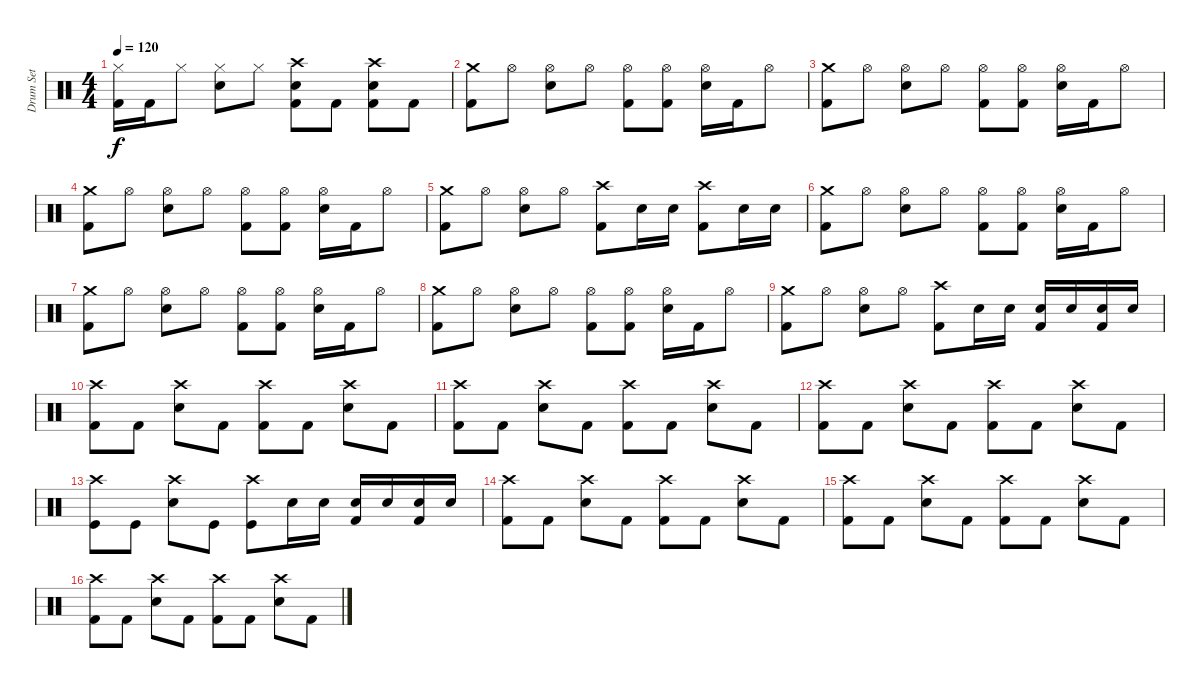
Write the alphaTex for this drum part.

\track ("Drum Set" "Drum Set") {instrument percussion}
\staff {score}
\articulation defaults
\ts (4 4)
\tempo 120
\clef neutral
\ks c
("Kick (hit) 2" "Hi-Hat (closed)").16{dy f} "Kick (hit) 2".16 "Hi-Hat (closed)".8 ("Hi-Hat (closed)" "Snare (hit) 2").8 "Hi-Hat (closed)".8 ("Crash high (hit)" "Kick (hit) 2" "Snare (hit) 2").8 "Kick (hit) 2".8 ("Crash high (hit)" "Snare (hit) 2" "Kick (hit) 2").8 "Kick (hit) 2".8 |
("Crash medium (hit)" "Kick (hit) 2").8 "Hi-Hat (open)".8 ("Snare (hit) 2" "Hi-Hat (open)").8 "Hi-Hat (open)".8 ("Kick (hit) 2" "Hi-Hat (open)").8 ("Kick (hit) 2" "Hi-Hat (open)").8 ("Snare (hit) 2" "Hi-Hat (open)").16 "Kick (hit) 2".16 "Hi-Hat (open)".8 |
("Crash medium (hit)" "Kick (hit) 2").8 "Hi-Hat (open)".8 ("Snare (hit) 2" "Hi-Hat (open)").8 "Hi-Hat (open)".8 ("Kick (hit) 2" "Hi-Hat (open)").8 ("Kick (hit) 2" "Hi-Hat (open)").8 ("Snare (hit) 2" "Hi-Hat (open)").16 "Kick (hit) 2".16 "Hi-Hat (open)".8 |
("Crash medium (hit)" "Kick (hit) 2").8 "Hi-Hat (open)".8 ("Snare (hit) 2" "Hi-Hat (open)").8 "Hi-Hat (open)".8 ("Kick (hit) 2" "Hi-Hat (open)").8 ("Kick (hit) 2" "Hi-Hat (open)").8 ("Snare (hit) 2" "Hi-Hat (open)").16 "Kick (hit) 2".16 "Hi-Hat (open)".8 |
("Kick (hit) 2" "Crash medium (hit)").8 "Hi-Hat (open)".8 ("Hi-Hat (open)" "Snare (hit) 2").8 "Hi-Hat (open)".8 ("Kick (hit) 2" "Crash high (hit)").8 "Snare (hit) 2".16 "Snare (hit) 2".16 ("Kick (hit) 2" "Crash high (hit)").8 "Snare (hit) 2".16 "Snare (hit) 2".16 |
("Crash medium (hit)" "Kick (hit) 2").8 "Hi-Hat (open)".8 ("Snare (hit) 2" "Hi-Hat (open)").8 "Hi-Hat (open)".8 ("Kick (hit) 2" "Hi-Hat (open)").8 ("Kick (hit) 2" "Hi-Hat (open)").8 ("Snare (hit) 2" "Hi-Hat (open)").16 "Kick (hit) 2".16 "Hi-Hat (open)".8 |
("Crash medium (hit)" "Kick (hit) 2").8 "Hi-Hat (open)".8 ("Snare (hit) 2" "Hi-Hat (open)").8 "Hi-Hat (open)".8 ("Kick (hit) 2" "Hi-Hat (open)").8 ("Kick (hit) 2" "Hi-Hat (open)").8 ("Snare (hit) 2" "Hi-Hat (open)").16 "Kick (hit) 2".16 "Hi-Hat (open)".8 |
("Crash medium (hit)" "Kick (hit) 2").8 "Hi-Hat (open)".8 ("Snare (hit) 2" "Hi-Hat (open)").8 "Hi-Hat (open)".8 ("Kick (hit) 2" "Hi-Hat (open)").8 ("Kick (hit) 2" "Hi-Hat (open)").8 ("Snare (hit) 2" "Hi-Hat (open)").16 "Kick (hit) 2".16 "Hi-Hat (open)".8 |
("Kick (hit) 2" "Crash medium (hit)").8 "Hi-Hat (open)".8 ("Hi-Hat (open)" "Snare (hit) 2").8 "Hi-Hat (open)".8 ("Kick (hit) 2" "Crash high (hit)").8 "Snare (hit) 2".16 "Snare (hit) 2".16 ("Snare (hit) 2" "Kick (hit) 2").16 "Snare (hit) 2".16 ("Snare (hit) 2" "Kick (hit) 2").16 "Snare (hit) 2".16 |
("Kick (hit) 2" "Crash high (hit)").8 "Kick (hit) 2".8 ("Snare (hit) 2" "Crash high (hit)").8 "Kick (hit) 2".8 ("Kick (hit) 2" "Crash high (hit)").8 "Kick (hit) 2".8 ("Snare (hit) 2" "Crash high (hit)").8 "Kick (hit) 2".8 |
("Kick (hit) 2" "Crash high (hit)").8 "Kick (hit) 2".8 ("Snare (hit) 2" "Crash high (hit)").8 "Kick (hit) 2".8 ("Kick (hit) 2" "Crash high (hit)").8 "Kick (hit) 2".8 ("Snare (hit) 2" "Crash high (hit)").8 "Kick (hit) 2".8 |
("Kick (hit) 2" "Crash high (hit)").8 "Kick (hit) 2".8 ("Snare (hit) 2" "Crash high (hit)").8 "Kick (hit) 2".8 ("Kick (hit) 2" "Crash high (hit)").8 "Kick (hit) 2".8 ("Snare (hit) 2" "Crash high (hit)").8 "Kick (hit) 2".8 |
("Kick (hit)" "Crash high (hit)").8 "Kick (hit)".8 ("Snare (hit) 2" "Crash high (hit)").8 "Kick (hit)".8 ("Kick (hit)" "Crash high (hit)").8 "Snare (hit) 2".16 "Snare (hit) 2".16 ("Snare (hit) 2" "Kick (hit) 2").16 "Snare (hit) 2".16 ("Snare (hit) 2" "Kick (hit) 2").16 "Snare (hit) 2".16 |
("Kick (hit) 2" "Crash high (hit)").8 "Kick (hit) 2".8 ("Snare (hit) 2" "Crash high (hit)").8 "Kick (hit) 2".8 ("Kick (hit) 2" "Crash high (hit)").8 "Kick (hit) 2".8 ("Snare (hit) 2" "Crash high (hit)").8 "Kick (hit) 2".8 |
("Kick (hit) 2" "Crash high (hit)").8 "Kick (hit) 2".8 ("Snare (hit) 2" "Crash high (hit)").8 "Kick (hit) 2".8 ("Kick (hit) 2" "Crash high (hit)").8 "Kick (hit) 2".8 ("Snare (hit) 2" "Crash high (hit)").8 "Kick (hit) 2".8 |
("Kick (hit) 2" "Crash high (hit)").8 "Kick (hit) 2".8 ("Snare (hit) 2" "Crash high (hit)").8 "Kick (hit) 2".8 ("Kick (hit) 2" "Crash high (hit)").8 "Kick (hit) 2".8 ("Snare (hit) 2" "Crash high (hit)").8 "Kick (hit) 2".8
